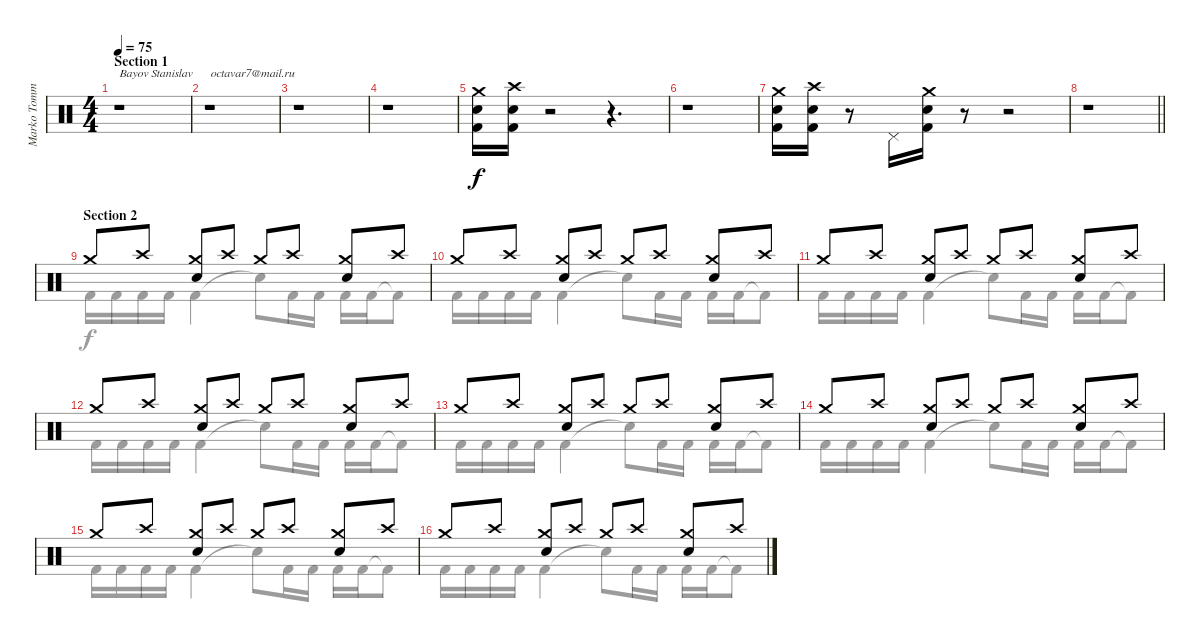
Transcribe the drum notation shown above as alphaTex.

\track ("Marko Tommila (drums)" "Marko Tomm") {instrument percussion}
\staff {score}
\articulation defaults
\voice
\ts (4 4)
\section ("" "Section 1")
\tempo 75
\clef neutral
\ks aminor
r.1{txt "Bayov Stanislav      octavar7@mail.ru" dy f} |
r.1 |
r.1 |
r.1 |
("Crash medium (hit)" "Electric Snare (hit)" "Kick (hit) 2").16 ("Crash high (hit)" "Electric Snare (hit)" "Kick (hit) 2").16 r.2 r.4{d} |
r.1 |
("Crash medium (hit)" "Electric Snare (hit)" "Kick (hit) 2").16 ("Crash high (hit)" "Electric Snare (hit)" "Kick (hit) 2").16 r.8 "Pedal Hi-Hat (hit)".16 ("Crash medium (hit)" "Electric Snare (hit)" "Kick (hit) 2").16 r.8 r.2 |
\barLineRight lightlight
r.1 |
\section ("" "Section 2")
"Crash medium (hit)".8 "Crash high (hit)".8 ("Crash medium (hit)" "Electric Snare (hit)").8 "Crash high (hit)".8 "Crash medium (hit)".8 "Crash high (hit)".8 ("Crash medium (hit)" "Electric Snare (hit)").8 "Crash high (hit)".8 |
"Crash medium (hit)".8 "Crash high (hit)".8 ("Crash medium (hit)" "Electric Snare (hit)").8 "Crash high (hit)".8 "Crash medium (hit)".8 "Crash high (hit)".8 ("Crash medium (hit)" "Electric Snare (hit)").8 "Crash high (hit)".8 |
"Crash medium (hit)".8 "Crash high (hit)".8 ("Crash medium (hit)" "Electric Snare (hit)").8 "Crash high (hit)".8 "Crash medium (hit)".8 "Crash high (hit)".8 ("Crash medium (hit)" "Electric Snare (hit)").8 "Crash high (hit)".8 |
"Crash medium (hit)".8 "Crash high (hit)".8 ("Crash medium (hit)" "Electric Snare (hit)").8 "Crash high (hit)".8 "Crash medium (hit)".8 "Crash high (hit)".8 ("Crash medium (hit)" "Electric Snare (hit)").8 "Crash high (hit)".8 |
"Crash medium (hit)".8 "Crash high (hit)".8 ("Crash medium (hit)" "Electric Snare (hit)").8 "Crash high (hit)".8 "Crash medium (hit)".8 "Crash high (hit)".8 ("Crash medium (hit)" "Electric Snare (hit)").8 "Crash high (hit)".8 |
"Crash medium (hit)".8 "Crash high (hit)".8 ("Crash medium (hit)" "Electric Snare (hit)").8 "Crash high (hit)".8 "Crash medium (hit)".8 "Crash high (hit)".8 ("Crash medium (hit)" "Electric Snare (hit)").8 "Crash high (hit)".8 |
"Crash medium (hit)".8 "Crash high (hit)".8 ("Crash medium (hit)" "Electric Snare (hit)").8 "Crash high (hit)".8 "Crash medium (hit)".8 "Crash high (hit)".8 ("Crash medium (hit)" "Electric Snare (hit)").8 "Crash high (hit)".8 |
"Crash medium (hit)".8 "Crash high (hit)".8 ("Crash medium (hit)" "Electric Snare (hit)").8 "Crash high (hit)".8 "Crash medium (hit)".8 "Crash high (hit)".8 ("Crash medium (hit)" "Electric Snare (hit)").8 "Crash high (hit)".8
\voice
\clef neutral
\ottava regular
\simile none
\ks aminor
|
|
|
|
|
|
|
\barLineRight lightlight
|
"Kick (hit) 2".16 "Kick (hit) 2".16 "Kick (hit) 2".16 "Kick (hit) 2".16 "Kick (hit) 2".4 "Snare (hit)"{t}.8 "Kick (hit) 2".16 "Kick (hit) 2".16 "Kick (hit) 2".16 "Kick (hit) 2".16 "Kick (hit) 2"{t}.8 |
"Kick (hit) 2".16 "Kick (hit) 2".16 "Kick (hit) 2".16 "Kick (hit) 2".16 "Kick (hit) 2".4 "Snare (hit)"{t}.8 "Kick (hit) 2".16 "Kick (hit) 2".16 "Kick (hit) 2".16 "Kick (hit) 2".16 "Kick (hit) 2"{t}.8 |
"Kick (hit) 2".16 "Kick (hit) 2".16 "Kick (hit) 2".16 "Kick (hit) 2".16 "Kick (hit) 2".4 "Snare (hit)"{t}.8 "Kick (hit) 2".16 "Kick (hit) 2".16 "Kick (hit) 2".16 "Kick (hit) 2".16 "Kick (hit) 2"{t}.8 |
"Kick (hit) 2".16 "Kick (hit) 2".16 "Kick (hit) 2".16 "Kick (hit) 2".16 "Kick (hit) 2".4 "Snare (hit)"{t}.8 "Kick (hit) 2".16 "Kick (hit) 2".16 "Kick (hit) 2".16 "Kick (hit) 2".16 "Kick (hit) 2"{t}.8 |
"Kick (hit) 2".16 "Kick (hit) 2".16 "Kick (hit) 2".16 "Kick (hit) 2".16 "Kick (hit) 2".4 "Snare (hit)"{t}.8 "Kick (hit) 2".16 "Kick (hit) 2".16 "Kick (hit) 2".16 "Kick (hit) 2".16 "Kick (hit) 2"{t}.8 |
"Kick (hit) 2".16 "Kick (hit) 2".16 "Kick (hit) 2".16 "Kick (hit) 2".16 "Kick (hit) 2".4 "Snare (hit)"{t}.8 "Kick (hit) 2".16 "Kick (hit) 2".16 "Kick (hit) 2".16 "Kick (hit) 2".16 "Kick (hit) 2"{t}.8 |
"Kick (hit) 2".16 "Kick (hit) 2".16 "Kick (hit) 2".16 "Kick (hit) 2".16 "Kick (hit) 2".4 "Snare (hit)"{t}.8 "Kick (hit) 2".16 "Kick (hit) 2".16 "Kick (hit) 2".16 "Kick (hit) 2".16 "Kick (hit) 2"{t}.8 |
"Kick (hit) 2".16 "Kick (hit) 2".16 "Kick (hit) 2".16 "Kick (hit) 2".16 "Kick (hit) 2".4 "Snare (hit)"{t}.8 "Kick (hit) 2".16 "Kick (hit) 2".16 "Kick (hit) 2".16 "Kick (hit) 2".16 "Kick (hit) 2"{t}.8
